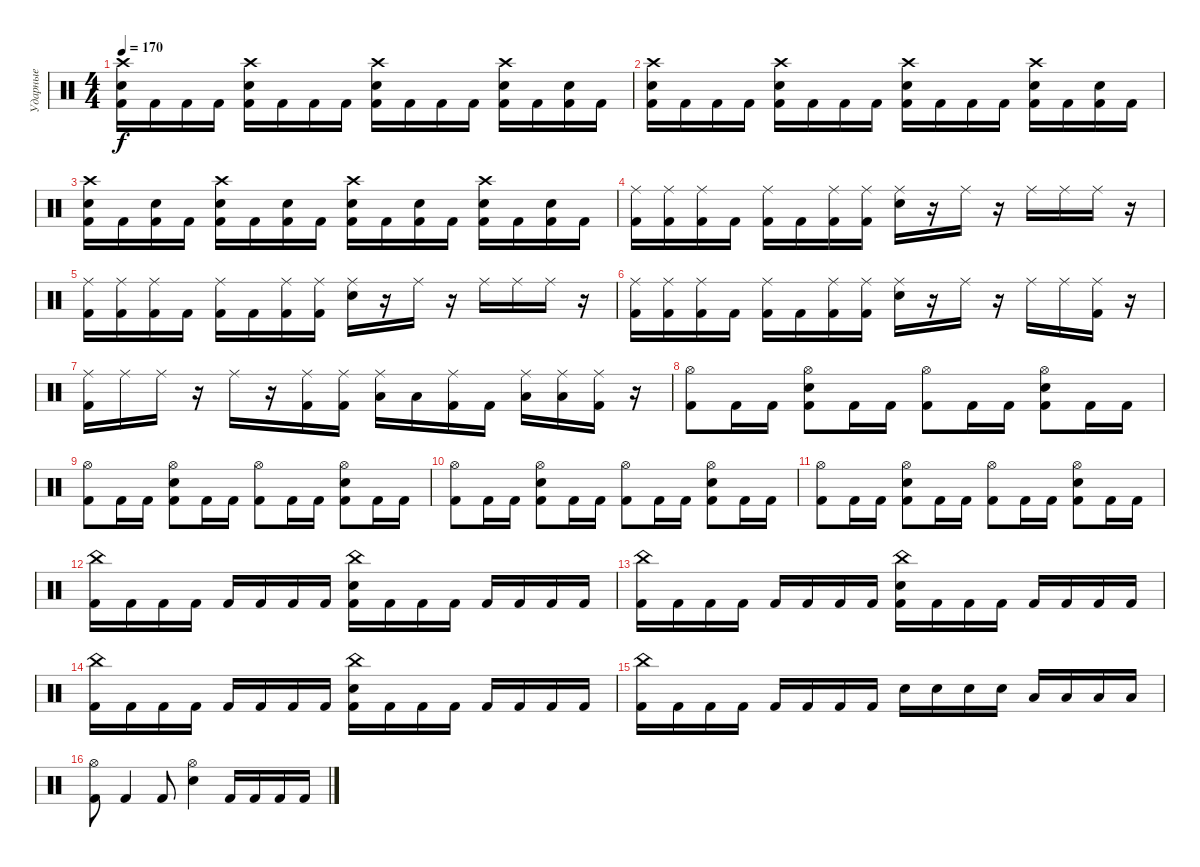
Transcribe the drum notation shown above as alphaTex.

\track ("Ударные" "Ударные") {instrument percussion}
\staff {score}
\articulation defaults
\ts (4 4)
\tempo 170
\clef neutral
\ks c
("Crash high (hit)" "Electric Snare (hit)" "Kick (hit) 2").16{dy f} "Kick (hit) 2".16 "Kick (hit) 2".16 "Kick (hit) 2".16 ("Crash high (hit)" "Electric Snare (hit)" "Kick (hit) 2").16 "Kick (hit) 2".16 "Kick (hit) 2".16 "Kick (hit) 2".16 ("Crash high (hit)" "Electric Snare (hit)" "Kick (hit) 2").16 "Kick (hit) 2".16 "Kick (hit) 2".16 "Kick (hit) 2".16 ("Crash high (hit)" "Electric Snare (hit)" "Kick (hit) 2").16 "Kick (hit) 2".16 ("Electric Snare (hit)" "Kick (hit) 2").16 "Kick (hit) 2".16 |
("Crash high (hit)" "Electric Snare (hit)" "Kick (hit) 2").16 "Kick (hit) 2".16 "Kick (hit) 2".16 "Kick (hit) 2".16 ("Crash high (hit)" "Electric Snare (hit)" "Kick (hit) 2").16 "Kick (hit) 2".16 "Kick (hit) 2".16 "Kick (hit) 2".16 ("Crash high (hit)" "Electric Snare (hit)" "Kick (hit) 2").16 "Kick (hit) 2".16 "Kick (hit) 2".16 "Kick (hit) 2".16 ("Crash high (hit)" "Electric Snare (hit)" "Kick (hit) 2").16 "Kick (hit) 2".16 ("Electric Snare (hit)" "Kick (hit) 2").16 "Kick (hit) 2".16 |
("Crash high (hit)" "Electric Snare (hit)" "Kick (hit) 2").16 "Kick (hit) 2".16 ("Electric Snare (hit)" "Kick (hit) 2").16 "Kick (hit) 2".16 ("Crash high (hit)" "Electric Snare (hit)" "Kick (hit) 2").16 "Kick (hit) 2".16 ("Electric Snare (hit)" "Kick (hit) 2").16 "Kick (hit) 2".16 ("Crash high (hit)" "Electric Snare (hit)" "Kick (hit) 2").16 "Kick (hit) 2".16 ("Electric Snare (hit)" "Kick (hit) 2").16 "Kick (hit) 2".16 ("Crash high (hit)" "Electric Snare (hit)" "Kick (hit) 2").16 "Kick (hit) 2".16 ("Electric Snare (hit)" "Kick (hit) 2").16 "Kick (hit) 2".16 |
("Ride (middle)" "Kick (hit) 2").16 ("Ride (middle)" "Kick (hit) 2").16 ("Ride (middle)" "Kick (hit) 2").16 "Kick (hit) 2".16 ("Ride (middle)" "Kick (hit) 2").16 "Kick (hit) 2".16 ("Ride (middle)" "Kick (hit) 2").16 ("Ride (middle)" "Kick (hit) 2").16 ("Ride (middle)" "Electric Snare (hit)").16 r.16 "Ride (middle)".16 r.16 "Ride (middle)".16 "Ride (middle)".16 "Ride (middle)".16 r.16 |
("Ride (middle)" "Kick (hit) 2").16 ("Ride (middle)" "Kick (hit) 2").16 ("Ride (middle)" "Kick (hit) 2").16 "Kick (hit) 2".16 ("Ride (middle)" "Kick (hit) 2").16 "Kick (hit) 2".16 ("Ride (middle)" "Kick (hit) 2").16 ("Ride (middle)" "Kick (hit) 2").16 ("Ride (middle)" "Electric Snare (hit)").16 r.16 "Ride (middle)".16 r.16 "Ride (middle)".16 "Ride (middle)".16 "Ride (middle)".16 r.16 |
("Ride (middle)" "Kick (hit) 2").16 ("Ride (middle)" "Kick (hit) 2").16 ("Ride (middle)" "Kick (hit) 2").16 "Kick (hit) 2".16 ("Ride (middle)" "Kick (hit) 2").16 "Kick (hit) 2".16 ("Ride (middle)" "Kick (hit) 2").16 ("Ride (middle)" "Kick (hit) 2").16 ("Ride (middle)" "Electric Snare (hit)").16 r.16 "Ride (middle)".16 r.16 "Ride (middle)".16 "Ride (middle)".16 ("Ride (middle)" "Kick (hit) 2").16 r.16 |
("Ride (middle)" "Kick (hit) 2").16 "Ride (middle)".16 "Ride (middle)".16 r.16 "Ride (middle)".16 r.16 ("Ride (middle)" "Kick (hit) 2").16 ("Ride (middle)" "Kick (hit) 2").16 ("Ride (middle)" "Low Tom (hit)").16 "Low Tom (hit)".16 ("Ride (middle)" "Kick (hit) 2").16 "Kick (hit) 2".16 ("Ride (middle)" "Low Floor Tom (hit)").16 ("Ride (middle)" "Low Floor Tom (hit)").16 ("Ride (middle)" "Kick (hit) 2").16 r.16 |
("Hi-Hat (open)" "Kick (hit) 2").8 "Kick (hit) 2".16 "Kick (hit) 2".16 ("Hi-Hat (open)" "Electric Snare (hit)" "Kick (hit) 2").8 "Kick (hit) 2".16 "Kick (hit) 2".16 ("Hi-Hat (open)" "Kick (hit) 2").8 "Kick (hit) 2".16 "Kick (hit) 2".16 ("Hi-Hat (open)" "Electric Snare (hit)" "Kick (hit) 2").8 "Kick (hit) 2".16 "Kick (hit) 2".16 |
("Hi-Hat (open)" "Kick (hit) 2").8 "Kick (hit) 2".16 "Kick (hit) 2".16 ("Hi-Hat (open)" "Electric Snare (hit)" "Kick (hit) 2").8 "Kick (hit) 2".16 "Kick (hit) 2".16 ("Hi-Hat (open)" "Kick (hit) 2").8 "Kick (hit) 2".16 "Kick (hit) 2".16 ("Hi-Hat (open)" "Electric Snare (hit)" "Kick (hit) 2").8 "Kick (hit) 2".16 "Kick (hit) 2".16 |
("Hi-Hat (open)" "Kick (hit) 2").8 "Kick (hit) 2".16 "Kick (hit) 2".16 ("Hi-Hat (open)" "Electric Snare (hit)" "Kick (hit) 2").8 "Kick (hit) 2".16 "Kick (hit) 2".16 ("Hi-Hat (open)" "Kick (hit) 2").8 "Kick (hit) 2".16 "Kick (hit) 2".16 ("Hi-Hat (open)" "Electric Snare (hit)" "Kick (hit) 2").8 "Kick (hit) 2".16 "Kick (hit) 2".16 |
("Hi-Hat (open)" "Kick (hit) 2").8 "Kick (hit) 2".16 "Kick (hit) 2".16 ("Hi-Hat (open)" "Electric Snare (hit)" "Kick (hit) 2").8 "Kick (hit) 2".16 "Kick (hit) 2".16 ("Hi-Hat (open)" "Kick (hit) 2").8 "Kick (hit) 2".16 "Kick (hit) 2".16 ("Hi-Hat (open)" "Electric Snare (hit)" "Kick (hit) 2").8 "Kick (hit) 2".16 "Kick (hit) 2".16 |
("China (hit)" "Kick (hit) 2").16 "Kick (hit) 2".16 "Kick (hit) 2".16 "Kick (hit) 2".16 "Kick (hit) 2".16 "Kick (hit) 2".16 "Kick (hit) 2".16 "Kick (hit) 2".16 ("China (hit)" "Electric Snare (hit)" "Kick (hit) 2").16 "Kick (hit) 2".16 "Kick (hit) 2".16 "Kick (hit) 2".16 "Kick (hit) 2".16 "Kick (hit) 2".16 "Kick (hit) 2".16 "Kick (hit) 2".16 |
("China (hit)" "Kick (hit) 2").16 "Kick (hit) 2".16 "Kick (hit) 2".16 "Kick (hit) 2".16 "Kick (hit) 2".16 "Kick (hit) 2".16 "Kick (hit) 2".16 "Kick (hit) 2".16 ("China (hit)" "Electric Snare (hit)" "Kick (hit) 2").16 "Kick (hit) 2".16 "Kick (hit) 2".16 "Kick (hit) 2".16 "Kick (hit) 2".16 "Kick (hit) 2".16 "Kick (hit) 2".16 "Kick (hit) 2".16 |
("China (hit)" "Kick (hit) 2").16 "Kick (hit) 2".16 "Kick (hit) 2".16 "Kick (hit) 2".16 "Kick (hit) 2".16 "Kick (hit) 2".16 "Kick (hit) 2".16 "Kick (hit) 2".16 ("China (hit)" "Electric Snare (hit)" "Kick (hit) 2").16 "Kick (hit) 2".16 "Kick (hit) 2".16 "Kick (hit) 2".16 "Kick (hit) 2".16 "Kick (hit) 2".16 "Kick (hit) 2".16 "Kick (hit) 2".16 |
("China (hit)" "Kick (hit) 2").16 "Kick (hit) 2".16 "Kick (hit) 2".16 "Kick (hit) 2".16 "Kick (hit) 2".16 "Kick (hit) 2".16 "Kick (hit) 2".16 "Kick (hit) 2".16 "Electric Snare (hit)".16 "Electric Snare (hit)".16 "Electric Snare (hit)".16 "Electric Snare (hit)".16 "Low Tom (hit)".16 "Low Tom (hit)".16 "Low Tom (hit)".16 "Low Tom (hit)".16 |
("Hi-Hat (open)" "Kick (hit) 2").8 "Kick (hit) 2".4 "Kick (hit) 2".8 ("Hi-Hat (open)" "Electric Snare (hit)").4 "Kick (hit) 2".16 "Kick (hit) 2".16 "Kick (hit) 2".16 "Kick (hit) 2".16
